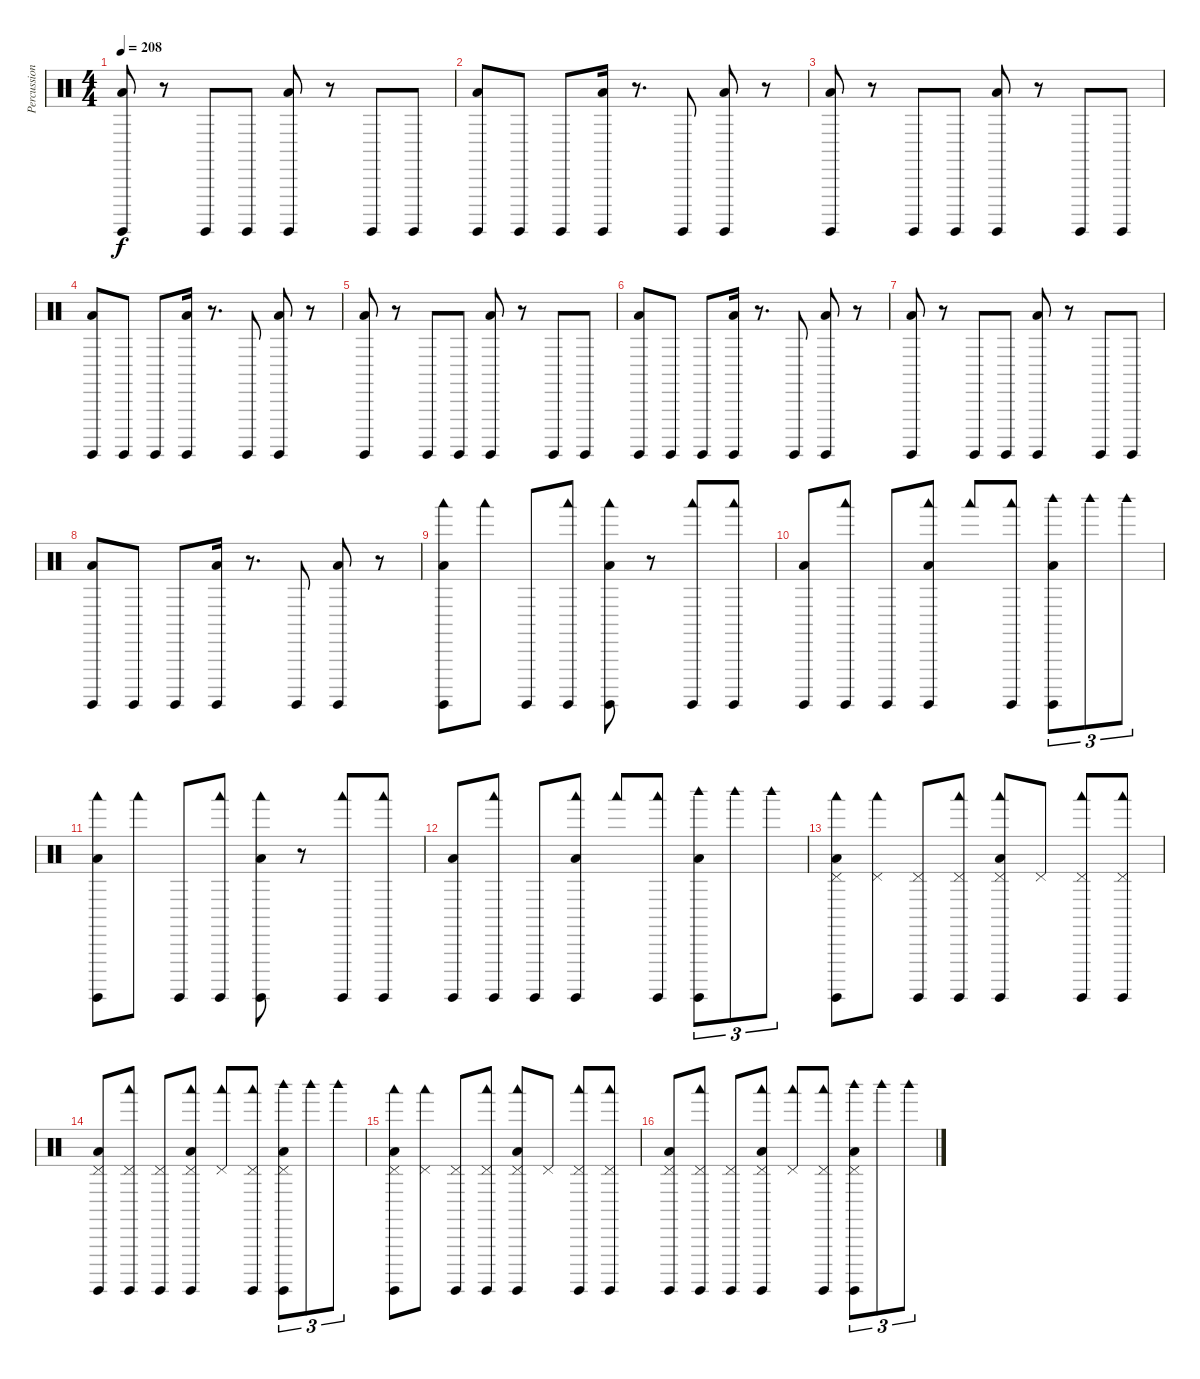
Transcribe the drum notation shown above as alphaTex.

\track ("Percussions" "Percussion") {instrument percussion}
\staff {score}
\articulation defaults
\ts (4 4)
\tempo 208
\clef neutral
\ks c
("Low Floor Tom (hit)" "Surdo (hit)").8{bd 240 dy f} r.8 "Surdo (hit)".8 "Surdo (hit)".8 ("Low Floor Tom (hit)" "Surdo (hit)").8{bd 240} r.8 "Surdo (hit)".8 "Surdo (hit)".8 |
("Low Floor Tom (hit)" "Surdo (hit)").8{bd 240} "Surdo (hit)".8 "Surdo (hit)".8 ("Low Floor Tom (hit)" "Surdo (hit)").16{bd 240} r.8{d} "Surdo (hit)".8 ("Low Floor Tom (hit)" "Surdo (hit)").8 r.8 |
("Low Floor Tom (hit)" "Surdo (hit)").8{bd 240} r.8 "Surdo (hit)".8 "Surdo (hit)".8 ("Low Floor Tom (hit)" "Surdo (hit)").8{bd 240} r.8 "Surdo (hit)".8 "Surdo (hit)".8 |
("Low Floor Tom (hit)" "Surdo (hit)").8{bd 240} "Surdo (hit)".8 "Surdo (hit)".8 ("Low Floor Tom (hit)" "Surdo (hit)").16{bd 240} r.8{d} "Surdo (hit)".8 ("Low Floor Tom (hit)" "Surdo (hit)").8 r.8 |
("Low Floor Tom (hit)" "Surdo (hit)").8{bd 240} r.8 "Surdo (hit)".8 "Surdo (hit)".8 ("Low Floor Tom (hit)" "Surdo (hit)").8{bd 240} r.8 "Surdo (hit)".8 "Surdo (hit)".8 |
("Low Floor Tom (hit)" "Surdo (hit)").8{bd 240} "Surdo (hit)".8 "Surdo (hit)".8 ("Low Floor Tom (hit)" "Surdo (hit)").16{bd 240} r.8{d} "Surdo (hit)".8 ("Low Floor Tom (hit)" "Surdo (hit)").8 r.8 |
("Low Floor Tom (hit)" "Surdo (hit)").8{bd 240} r.8 "Surdo (hit)".8 "Surdo (hit)".8 ("Low Floor Tom (hit)" "Surdo (hit)").8{bd 240} r.8 "Surdo (hit)".8 "Surdo (hit)".8 |
("Low Floor Tom (hit)" "Surdo (hit)").8{bd 240} "Surdo (hit)".8 "Surdo (hit)".8 ("Low Floor Tom (hit)" "Surdo (hit)").16{bd 240} r.8{d} "Surdo (hit)".8 ("Low Floor Tom (hit)" "Surdo (hit)").8 r.8 |
("Low Floor Tom (hit)" "Surdo (hit)" "Woodblock low (hit)").8{bd 240} "Woodblock low (hit)".8 "Surdo (hit)".8 ("Surdo (hit)" "Woodblock low (hit)").8 ("Low Floor Tom (hit)" "Surdo (hit)" "Woodblock low (hit)").8{bd 240} r.8 ("Surdo (hit)" "Woodblock low (hit)").8 ("Surdo (hit)" "Woodblock low (hit)").8 |
("Low Floor Tom (hit)" "Surdo (hit)").8{bd 240} ("Surdo (hit)" "Woodblock low (hit)").8 "Surdo (hit)".8 ("Low Floor Tom (hit)" "Surdo (hit)" "Woodblock low (hit)").8{bd 240} "Woodblock low (hit)".8 ("Surdo (hit)" "Woodblock low (hit)").8 ("Low Floor Tom (hit)" "Surdo (hit)" "Woodblock high (hit)").8{tu (3 2)} "Woodblock high (hit)".8{tu (3 2)} "Woodblock high (hit)".8{tu (3 2)} |
("Low Floor Tom (hit)" "Surdo (hit)" "Woodblock low (hit)").8{bd 240} "Woodblock low (hit)".8 "Surdo (hit)".8 ("Surdo (hit)" "Woodblock low (hit)").8 ("Low Floor Tom (hit)" "Surdo (hit)" "Woodblock low (hit)").8{bd 240} r.8 ("Surdo (hit)" "Woodblock low (hit)").8 ("Surdo (hit)" "Woodblock low (hit)").8 |
("Low Floor Tom (hit)" "Surdo (hit)").8{bd 240} ("Surdo (hit)" "Woodblock low (hit)").8 "Surdo (hit)".8 ("Low Floor Tom (hit)" "Surdo (hit)" "Woodblock low (hit)").8{bd 240} "Woodblock low (hit)".8 ("Surdo (hit)" "Woodblock low (hit)").8 ("Low Floor Tom (hit)" "Surdo (hit)" "Woodblock high (hit)").8{tu (3 2)} "Woodblock high (hit)".8{tu (3 2)} "Woodblock high (hit)".8{tu (3 2)} |
("Low Floor Tom (hit)" "Surdo (hit)" "Woodblock low (hit)" "Pedal Hi-Hat (hit)").8{bd 240} ("Woodblock low (hit)" "Pedal Hi-Hat (hit)").8 ("Surdo (hit)" "Pedal Hi-Hat (hit)").8 ("Surdo (hit)" "Woodblock low (hit)" "Pedal Hi-Hat (hit)").8 ("Low Floor Tom (hit)" "Surdo (hit)" "Woodblock low (hit)" "Pedal Hi-Hat (hit)").8{bd 240} "Pedal Hi-Hat (hit)".8 ("Surdo (hit)" "Woodblock low (hit)" "Pedal Hi-Hat (hit)").8 ("Surdo (hit)" "Woodblock low (hit)" "Pedal Hi-Hat (hit)").8 |
("Low Floor Tom (hit)" "Surdo (hit)" "Pedal Hi-Hat (hit)").8{bd 240} ("Surdo (hit)" "Woodblock low (hit)" "Pedal Hi-Hat (hit)").8 ("Surdo (hit)" "Pedal Hi-Hat (hit)").8 ("Low Floor Tom (hit)" "Surdo (hit)" "Woodblock low (hit)" "Pedal Hi-Hat (hit)").8{bd 240} ("Woodblock low (hit)" "Pedal Hi-Hat (hit)").8 ("Surdo (hit)" "Woodblock low (hit)" "Pedal Hi-Hat (hit)").8 ("Low Floor Tom (hit)" "Surdo (hit)" "Woodblock high (hit)" "Pedal Hi-Hat (hit)").8{tu (3 2)} "Woodblock high (hit)".8{tu (3 2)} "Woodblock high (hit)".8{tu (3 2)} |
("Low Floor Tom (hit)" "Surdo (hit)" "Woodblock low (hit)" "Pedal Hi-Hat (hit)").8{bd 240} ("Woodblock low (hit)" "Pedal Hi-Hat (hit)").8 ("Surdo (hit)" "Pedal Hi-Hat (hit)").8 ("Surdo (hit)" "Woodblock low (hit)" "Pedal Hi-Hat (hit)").8 ("Low Floor Tom (hit)" "Surdo (hit)" "Woodblock low (hit)" "Pedal Hi-Hat (hit)").8{bd 240} "Pedal Hi-Hat (hit)".8 ("Surdo (hit)" "Woodblock low (hit)" "Pedal Hi-Hat (hit)").8 ("Surdo (hit)" "Woodblock low (hit)" "Pedal Hi-Hat (hit)").8 |
("Low Floor Tom (hit)" "Surdo (hit)" "Pedal Hi-Hat (hit)").8{bd 240} ("Surdo (hit)" "Woodblock low (hit)" "Pedal Hi-Hat (hit)").8 ("Surdo (hit)" "Pedal Hi-Hat (hit)").8 ("Low Floor Tom (hit)" "Surdo (hit)" "Woodblock low (hit)" "Pedal Hi-Hat (hit)").8{bd 240} ("Woodblock low (hit)" "Pedal Hi-Hat (hit)").8 ("Surdo (hit)" "Woodblock low (hit)" "Pedal Hi-Hat (hit)").8 ("Low Floor Tom (hit)" "Surdo (hit)" "Woodblock high (hit)" "Pedal Hi-Hat (hit)").8{tu (3 2)} "Woodblock high (hit)".8{tu (3 2)} "Woodblock high (hit)".8{tu (3 2)}
